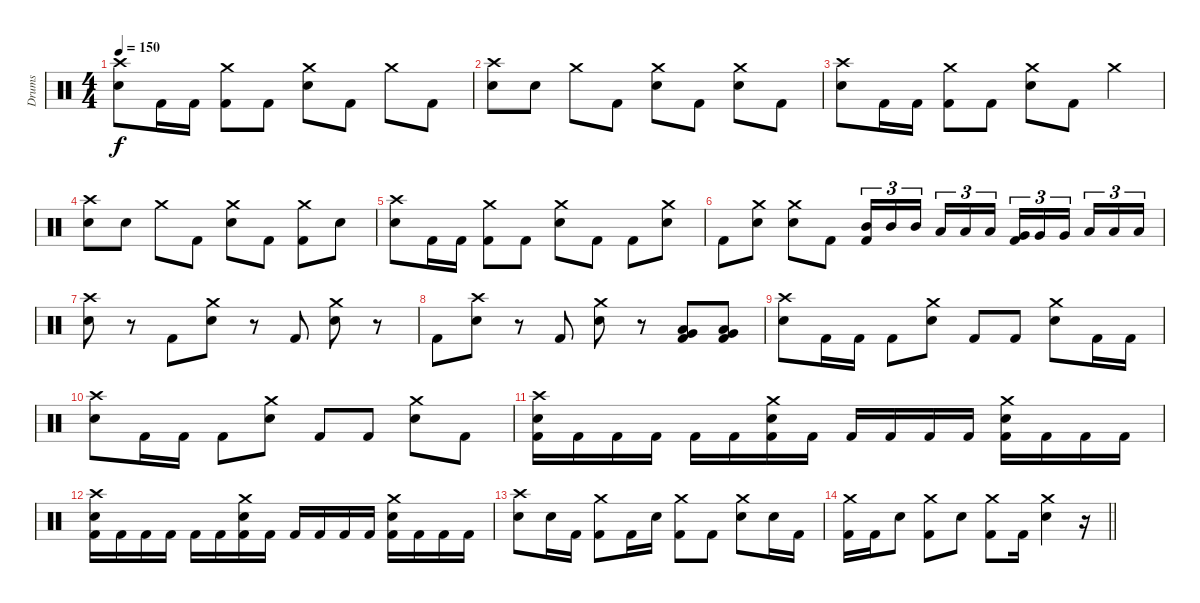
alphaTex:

\track ("Drums" "Drums") {instrument percussion}
\staff {score}
\articulation defaults
\ts (4 4)
\tempo 150
\clef neutral
\ks c
("Crash high (hit)" "Snare (hit) 2").8{dy f} "Kick (hit) 2".16 "Kick (hit) 2".16 ("Crash medium (hit)" "Kick (hit) 2").8 "Kick (hit) 2".8 ("Crash medium (hit)" "Snare (hit) 2").8 "Kick (hit) 2".8 "Crash medium (hit)".8 "Kick (hit) 2".8 |
("Crash high (hit)" "Snare (hit) 2").8 "Snare (hit) 2".8 "Crash medium (hit)".8 "Kick (hit) 2".8 ("Crash medium (hit)" "Snare (hit) 2").8 "Kick (hit) 2".8 ("Crash medium (hit)" "Snare (hit) 2").8 "Kick (hit) 2".8 |
("Crash high (hit)" "Snare (hit) 2").8 "Kick (hit) 2".16 "Kick (hit) 2".16 ("Crash medium (hit)" "Kick (hit) 2").8 "Kick (hit) 2".8 ("Crash medium (hit)" "Snare (hit) 2").8 "Kick (hit) 2".8 "Crash medium (hit)".4 |
("Crash high (hit)" "Snare (hit) 2").8 "Snare (hit) 2".8 "Crash medium (hit)".8 "Kick (hit) 2".8 ("Crash medium (hit)" "Snare (hit) 2").8 "Kick (hit) 2".8 ("Crash medium (hit)" "Kick (hit) 2").8 "Snare (hit) 2".8 |
("Crash high (hit)" "Snare (hit) 2").8 "Kick (hit) 2".16 "Kick (hit) 2".16 ("Crash medium (hit)" "Kick (hit) 2").8 "Kick (hit) 2".8 ("Crash medium (hit)" "Snare (hit) 2").8 "Kick (hit) 2".8 "Kick (hit) 2".8 ("Crash medium (hit)" "Snare (hit) 2").8 |
"Kick (hit) 2".8 ("Crash medium (hit)" "Snare (hit) 2").8 ("Crash medium (hit)" "Snare (hit) 2").8 "Kick (hit) 2".8 ("Mid Tom (hit)" "Kick (hit) 2").16{tu (3 2)} "Mid Tom (hit)".16{tu (3 2)} "Mid Tom (hit)".16{tu (3 2) beam splitsecondary} "Low Tom (hit)".16{tu (3 2)} "Low Tom (hit)".16{tu (3 2)} "Low Tom (hit)".16{tu (3 2)} ("Very Low Tom (hit)" "Kick (hit) 2").16{tu (3 2)} "Very Low Tom (hit)".16{tu (3 2)} "Very Low Tom (hit)".16{tu (3 2) beam splitsecondary} "Low Floor Tom (hit)".16{tu (3 2)} "Low Floor Tom (hit)".16{tu (3 2)} "Low Floor Tom (hit)".16{tu (3 2)} |
("Crash high (hit)" "Snare (hit) 2").8 r.8 "Kick (hit) 2".8 ("Crash medium (hit)" "Snare (hit) 2").8 r.8 "Kick (hit) 2".8 ("Crash medium (hit)" "Snare (hit) 2").8 r.8 |
"Kick (hit) 2".8 ("Crash high (hit)" "Snare (hit) 2").8 r.8 "Kick (hit) 2".8 ("Crash medium (hit)" "Snare (hit) 2").8 r.8 ("Very Low Tom (hit)" "Low Tom (hit)" "Kick (hit) 2").8 ("Very Low Tom (hit)" "Low Tom (hit)" "Kick (hit) 2").8 |
("Crash high (hit)" "Snare (hit) 2").8 "Kick (hit) 2".16 "Kick (hit) 2".16 "Kick (hit) 2".8 ("Crash medium (hit)" "Snare (hit) 2").8 "Kick (hit) 2".8 "Kick (hit) 2".8 ("Crash medium (hit)" "Snare (hit) 2").8 "Kick (hit) 2".16 "Kick (hit) 2".16 |
("Crash high (hit)" "Snare (hit) 2").8 "Kick (hit) 2".16 "Kick (hit) 2".16 "Kick (hit) 2".8 ("Crash medium (hit)" "Snare (hit) 2").8 "Kick (hit) 2".8 "Kick (hit) 2".8 ("Crash medium (hit)" "Snare (hit) 2").8 "Kick (hit) 2".8 |
("Crash high (hit)" "Snare (hit) 2" "Kick (hit) 2").16 "Kick (hit) 2".16 "Kick (hit) 2".16 "Kick (hit) 2".16 "Kick (hit) 2".16 "Kick (hit) 2".16 ("Crash medium (hit)" "Snare (hit) 2" "Kick (hit) 2").16 "Kick (hit) 2".16 "Kick (hit) 2".16 "Kick (hit) 2".16 "Kick (hit) 2".16 "Kick (hit) 2".16 ("Crash medium (hit)" "Snare (hit) 2" "Kick (hit) 2").16 "Kick (hit) 2".16 "Kick (hit) 2".16 "Kick (hit) 2".16 |
("Crash high (hit)" "Snare (hit) 2" "Kick (hit) 2").16 "Kick (hit) 2".16 "Kick (hit) 2".16 "Kick (hit) 2".16 "Kick (hit) 2".16 "Kick (hit) 2".16 ("Crash medium (hit)" "Snare (hit) 2" "Kick (hit) 2").16 "Kick (hit) 2".16 "Kick (hit) 2".16 "Kick (hit) 2".16 "Kick (hit) 2".16 "Kick (hit) 2".16 ("Crash medium (hit)" "Snare (hit) 2" "Kick (hit) 2").16 "Kick (hit) 2".16 "Kick (hit) 2".16 "Kick (hit) 2".16 |
("Crash high (hit)" "Snare (hit) 2").8 "Snare (hit) 2".16 "Kick (hit) 2".16 ("Crash medium (hit)" "Kick (hit) 2").8 "Kick (hit) 2".16 "Snare (hit) 2".16 ("Crash medium (hit)" "Kick (hit) 2").8 "Kick (hit) 2".8 ("Crash medium (hit)" "Snare (hit) 2").8 "Snare (hit) 2".16 "Kick (hit) 2".16 |
\barLineRight lightlight
("Crash medium (hit)" "Kick (hit) 2").16 "Kick (hit) 2".16 "Snare (hit) 2".8 ("Crash medium (hit)" "Kick (hit) 2").8 "Snare (hit) 2".8 ("Crash medium (hit)" "Kick (hit) 2").8 "Kick (hit) 2".16 ("Crash medium (hit)" "Snare (hit) 2").4 r.16
